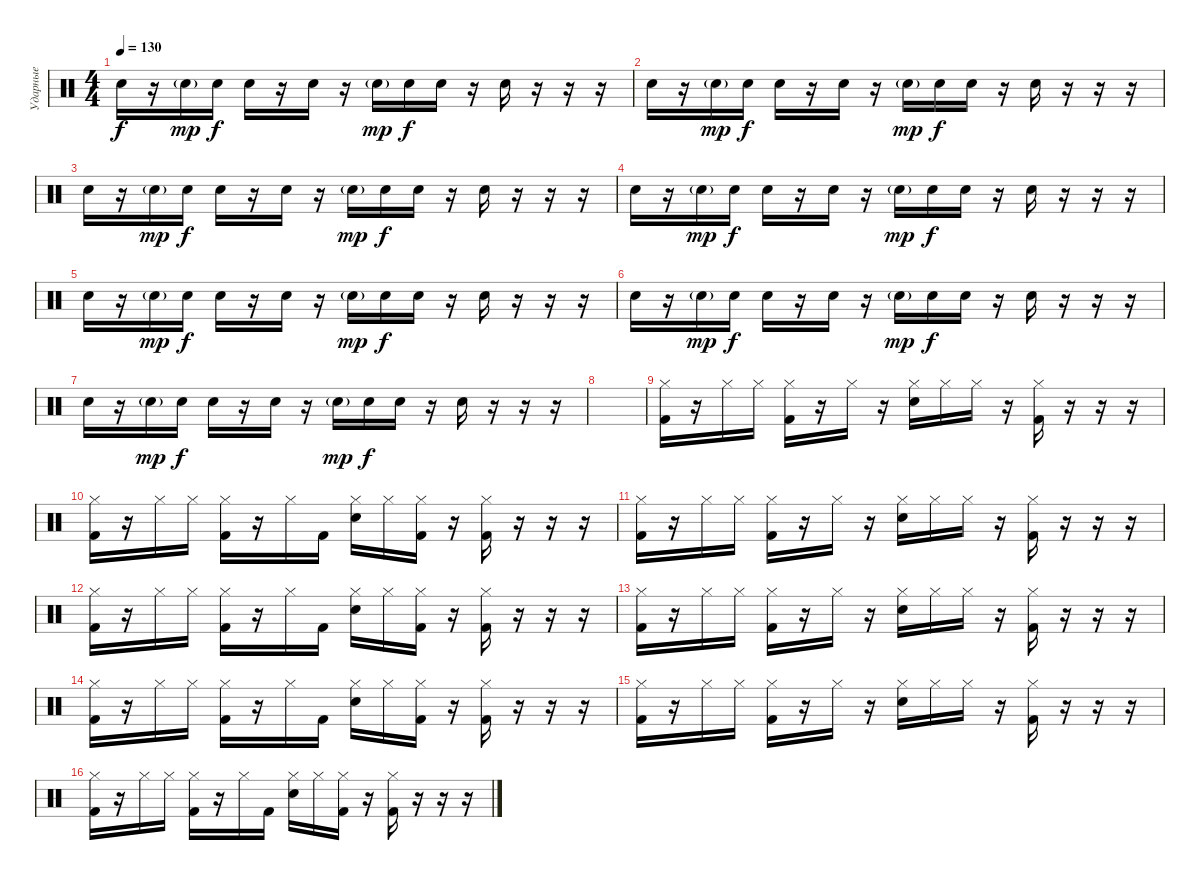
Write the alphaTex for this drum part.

\track ("Ударные" "Ударные") {instrument percussion}
\staff {score}
\articulation defaults
\ts (4 4)
\tempo 130
\clef neutral
\ks c "Electric Snare (hit)".16{dy f}
r.16 "Electric Snare (hit)"{g}.16{dy mp} "Electric Snare (hit)".16{dy f} "Electric Snare (hit)".16 r.16 "Electric Snare (hit)".16 r.16 "Electric Snare (hit)"{g}.16{dy mp} "Electric Snare (hit)".16{dy f} "Electric Snare (hit)".16 r.16 "Electric Snare (hit)".16 r.16 r.16 r.16 |
"Electric Snare (hit)".16 r.16 "Electric Snare (hit)"{g}.16{dy mp} "Electric Snare (hit)".16{dy f} "Electric Snare (hit)".16 r.16 "Electric Snare (hit)".16 r.16 "Electric Snare (hit)"{g}.16{dy mp} "Electric Snare (hit)".16{dy f} "Electric Snare (hit)".16 r.16 "Electric Snare (hit)".16 r.16 r.16 r.16 |
"Electric Snare (hit)".16 r.16 "Electric Snare (hit)"{g}.16{dy mp} "Electric Snare (hit)".16{dy f} "Electric Snare (hit)".16 r.16 "Electric Snare (hit)".16 r.16 "Electric Snare (hit)"{g}.16{dy mp} "Electric Snare (hit)".16{dy f} "Electric Snare (hit)".16 r.16 "Electric Snare (hit)".16 r.16 r.16 r.16 |
"Electric Snare (hit)".16 r.16 "Electric Snare (hit)"{g}.16{dy mp} "Electric Snare (hit)".16{dy f} "Electric Snare (hit)".16 r.16 "Electric Snare (hit)".16 r.16 "Electric Snare (hit)"{g}.16{dy mp} "Electric Snare (hit)".16{dy f} "Electric Snare (hit)".16 r.16 "Electric Snare (hit)".16 r.16 r.16 r.16 |
"Electric Snare (hit)".16 r.16 "Electric Snare (hit)"{g}.16{dy mp} "Electric Snare (hit)".16{dy f} "Electric Snare (hit)".16 r.16 "Electric Snare (hit)".16 r.16 "Electric Snare (hit)"{g}.16{dy mp} "Electric Snare (hit)".16{dy f} "Electric Snare (hit)".16 r.16 "Electric Snare (hit)".16 r.16 r.16 r.16 |
"Electric Snare (hit)".16 r.16 "Electric Snare (hit)"{g}.16{dy mp} "Electric Snare (hit)".16{dy f} "Electric Snare (hit)".16 r.16 "Electric Snare (hit)".16 r.16 "Electric Snare (hit)"{g}.16{dy mp} "Electric Snare (hit)".16{dy f} "Electric Snare (hit)".16 r.16 "Electric Snare (hit)".16 r.16 r.16 r.16 |
"Electric Snare (hit)".16 r.16 "Electric Snare (hit)"{g}.16{dy mp} "Electric Snare (hit)".16{dy f} "Electric Snare (hit)".16 r.16 "Electric Snare (hit)".16 r.16 "Electric Snare (hit)"{g}.16{dy mp} "Electric Snare (hit)".16{dy f} "Electric Snare (hit)".16 r.16 "Electric Snare (hit)".16 r.16 r.16 r.16 |
|
("Kick (hit) 2" "Hi-Hat (closed)").16{volume 16} r.16 "Hi-Hat (closed)".16 "Hi-Hat (closed)".16 ("Kick (hit) 2" "Hi-Hat (closed)").16 r.16 "Hi-Hat (closed)".16 r.16 ("Snare (hit) 2" "Hi-Hat (closed)").16 "Hi-Hat (closed)".16 "Hi-Hat (closed)".16 r.16 ("Kick (hit) 2" "Hi-Hat (closed)").16 r.16 r.16 r.16 |
("Kick (hit) 2" "Hi-Hat (closed)").16 r.16 "Hi-Hat (closed)".16 "Hi-Hat (closed)".16 ("Kick (hit) 2" "Hi-Hat (closed)").16 r.16 "Hi-Hat (closed)".16 "Kick (hit) 2".16 ("Snare (hit) 2" "Hi-Hat (closed)").16 "Hi-Hat (closed)".16 ("Kick (hit) 2" "Hi-Hat (closed)").16 r.16 ("Kick (hit) 2" "Hi-Hat (closed)").16 r.16 r.16 r.16 |
("Hi-Hat (closed)" "Kick (hit) 2").16 r.16 "Hi-Hat (closed)".16 "Hi-Hat (closed)".16 ("Kick (hit) 2" "Hi-Hat (closed)").16 r.16 "Hi-Hat (closed)".16 r.16 ("Snare (hit) 2" "Hi-Hat (closed)").16 "Hi-Hat (closed)".16 "Hi-Hat (closed)".16 r.16 ("Kick (hit) 2" "Hi-Hat (closed)").16 r.16 r.16 r.16 |
("Kick (hit) 2" "Hi-Hat (closed)").16 r.16 "Hi-Hat (closed)".16 "Hi-Hat (closed)".16 ("Kick (hit) 2" "Hi-Hat (closed)").16 r.16 "Hi-Hat (closed)".16 "Kick (hit) 2".16 ("Snare (hit) 2" "Hi-Hat (closed)").16 "Hi-Hat (closed)".16 ("Kick (hit) 2" "Hi-Hat (closed)").16 r.16 ("Kick (hit) 2" "Hi-Hat (closed)").16 r.16 r.16 r.16 |
("Kick (hit) 2" "Hi-Hat (closed)").16{volume 16} r.16 "Hi-Hat (closed)".16 "Hi-Hat (closed)".16 ("Kick (hit) 2" "Hi-Hat (closed)").16 r.16 "Hi-Hat (closed)".16 r.16 ("Snare (hit) 2" "Hi-Hat (closed)").16 "Hi-Hat (closed)".16 "Hi-Hat (closed)".16 r.16 ("Kick (hit) 2" "Hi-Hat (closed)").16 r.16 r.16 r.16 |
("Kick (hit) 2" "Hi-Hat (closed)").16 r.16 "Hi-Hat (closed)".16 "Hi-Hat (closed)".16 ("Kick (hit) 2" "Hi-Hat (closed)").16 r.16 "Hi-Hat (closed)".16 "Kick (hit) 2".16 ("Snare (hit) 2" "Hi-Hat (closed)").16 "Hi-Hat (closed)".16 ("Kick (hit) 2" "Hi-Hat (closed)").16 r.16 ("Kick (hit) 2" "Hi-Hat (closed)").16 r.16 r.16 r.16 |
("Hi-Hat (closed)" "Kick (hit) 2").16 r.16 "Hi-Hat (closed)".16 "Hi-Hat (closed)".16 ("Kick (hit) 2" "Hi-Hat (closed)").16 r.16 "Hi-Hat (closed)".16 r.16 ("Snare (hit) 2" "Hi-Hat (closed)").16 "Hi-Hat (closed)".16 "Hi-Hat (closed)".16 r.16 ("Kick (hit) 2" "Hi-Hat (closed)").16 r.16 r.16 r.16 |
("Kick (hit) 2" "Hi-Hat (closed)").16 r.16 "Hi-Hat (closed)".16 "Hi-Hat (closed)".16 ("Kick (hit) 2" "Hi-Hat (closed)").16 r.16 "Hi-Hat (closed)".16 "Kick (hit) 2".16 ("Snare (hit) 2" "Hi-Hat (closed)").16 "Hi-Hat (closed)".16 ("Kick (hit) 2" "Hi-Hat (closed)").16 r.16 ("Kick (hit) 2" "Hi-Hat (closed)").16 r.16 r.16 r.16
